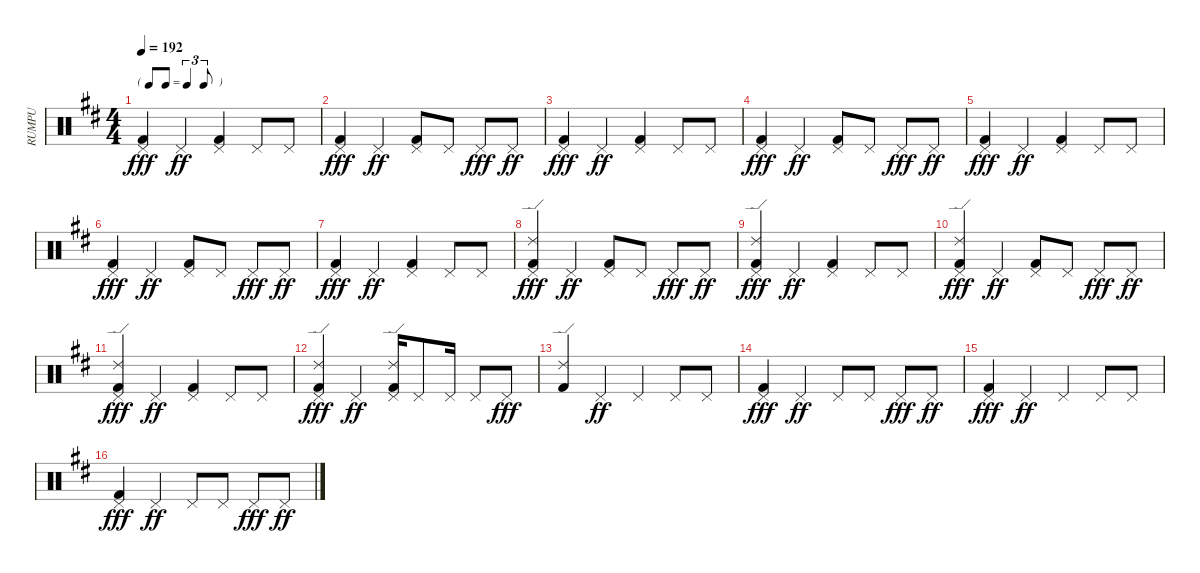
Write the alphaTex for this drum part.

\track ("RUMPU" "RUMPU") {instrument percussion}
\staff {score}
\articulation defaults
\ts (4 4)
\tf triplet8th
\tempo 192
\clef neutral
\ks d
("Pedal Hi-Hat (hit)" "Kick (hit) 2").4{dy fff} "Pedal Hi-Hat (hit)".4{dy ff} ("Pedal Hi-Hat (hit)" "Kick (hit) 2").4 "Pedal Hi-Hat (hit)".8 "Pedal Hi-Hat (hit)".8 |
("Pedal Hi-Hat (hit)" "Kick (hit) 2").4{dy fff} "Pedal Hi-Hat (hit)".4{dy ff} ("Pedal Hi-Hat (hit)" "Kick (hit) 2").8 "Pedal Hi-Hat (hit)".8 "Pedal Hi-Hat (hit)".8{dy fff} "Pedal Hi-Hat (hit)".8{dy ff} |
("Pedal Hi-Hat (hit)" "Kick (hit) 2").4{dy fff} "Pedal Hi-Hat (hit)".4{dy ff} ("Pedal Hi-Hat (hit)" "Kick (hit) 2").4 "Pedal Hi-Hat (hit)".8 "Pedal Hi-Hat (hit)".8 |
("Pedal Hi-Hat (hit)" "Kick (hit) 2").4{dy fff} "Pedal Hi-Hat (hit)".4{dy ff} ("Pedal Hi-Hat (hit)" "Kick (hit) 2").8 "Pedal Hi-Hat (hit)".8 "Pedal Hi-Hat (hit)".8{dy fff} "Pedal Hi-Hat (hit)".8{dy ff} |
("Pedal Hi-Hat (hit)" "Kick (hit) 2").4{dy fff} "Pedal Hi-Hat (hit)".4{dy ff} ("Pedal Hi-Hat (hit)" "Kick (hit) 2").4 "Pedal Hi-Hat (hit)".8 "Pedal Hi-Hat (hit)".8 |
("Pedal Hi-Hat (hit)" "Kick (hit) 2").4{dy fff} "Pedal Hi-Hat (hit)".4{dy ff} ("Pedal Hi-Hat (hit)" "Kick (hit) 2").8 "Pedal Hi-Hat (hit)".8 "Pedal Hi-Hat (hit)".8{dy fff} "Pedal Hi-Hat (hit)".8{dy ff} |
("Pedal Hi-Hat (hit)" "Kick (hit) 2").4{dy fff} "Pedal Hi-Hat (hit)".4{dy ff} ("Pedal Hi-Hat (hit)" "Kick (hit) 2").4 "Pedal Hi-Hat (hit)".8 "Pedal Hi-Hat (hit)".8 |
("Pedal Hi-Hat (hit)" "Kick (hit) 2" "Ride (edge) 2").4{dy fff} "Pedal Hi-Hat (hit)".4{dy ff} ("Pedal Hi-Hat (hit)" "Kick (hit) 2").8 "Pedal Hi-Hat (hit)".8 "Pedal Hi-Hat (hit)".8{dy fff} "Pedal Hi-Hat (hit)".8{dy ff} |
("Pedal Hi-Hat (hit)" "Kick (hit) 2" "Ride (edge) 2").4{dy fff} "Pedal Hi-Hat (hit)".4{dy ff} ("Pedal Hi-Hat (hit)" "Kick (hit) 2").4 "Pedal Hi-Hat (hit)".8 "Pedal Hi-Hat (hit)".8 |
("Pedal Hi-Hat (hit)" "Kick (hit) 2" "Ride (edge) 2").4{dy fff} "Pedal Hi-Hat (hit)".4{dy ff} ("Pedal Hi-Hat (hit)" "Kick (hit) 2").8 "Pedal Hi-Hat (hit)".8 "Pedal Hi-Hat (hit)".8{dy fff} "Pedal Hi-Hat (hit)".8{dy ff} |
("Pedal Hi-Hat (hit)" "Kick (hit) 2" "Ride (edge) 2").4{dy fff} "Pedal Hi-Hat (hit)".4{dy ff} ("Pedal Hi-Hat (hit)" "Kick (hit) 2").4 "Pedal Hi-Hat (hit)".8 "Pedal Hi-Hat (hit)".8 |
("Pedal Hi-Hat (hit)" "Kick (hit) 2" "Ride (edge) 2").4{dy fff} "Pedal Hi-Hat (hit)".4{dy ff} ("Pedal Hi-Hat (hit)" "Kick (hit) 2" "Ride (edge) 2").16 "Pedal Hi-Hat (hit)".8 "Pedal Hi-Hat (hit)".16 "Pedal Hi-Hat (hit)".8 "Pedal Hi-Hat (hit)".8{dy fff} |
("Ride (edge) 2" "Kick (hit) 2").4 "Pedal Hi-Hat (hit)".4{dy ff} "Pedal Hi-Hat (hit)".4 "Pedal Hi-Hat (hit)".8 "Pedal Hi-Hat (hit)".8 |
("Pedal Hi-Hat (hit)" "Kick (hit) 2").4{dy fff} "Pedal Hi-Hat (hit)".4{dy ff} "Pedal Hi-Hat (hit)".8 "Pedal Hi-Hat (hit)".8 "Pedal Hi-Hat (hit)".8{dy fff} "Pedal Hi-Hat (hit)".8{dy ff} |
("Pedal Hi-Hat (hit)" "Kick (hit) 2").4{dy fff} "Pedal Hi-Hat (hit)".4{dy ff} "Pedal Hi-Hat (hit)".4 "Pedal Hi-Hat (hit)".8 "Pedal Hi-Hat (hit)".8 |
("Pedal Hi-Hat (hit)" "Kick (hit) 2").4{dy fff} "Pedal Hi-Hat (hit)".4{dy ff} "Pedal Hi-Hat (hit)".8 "Pedal Hi-Hat (hit)".8 "Pedal Hi-Hat (hit)".8{dy fff} "Pedal Hi-Hat (hit)".8{dy ff}
